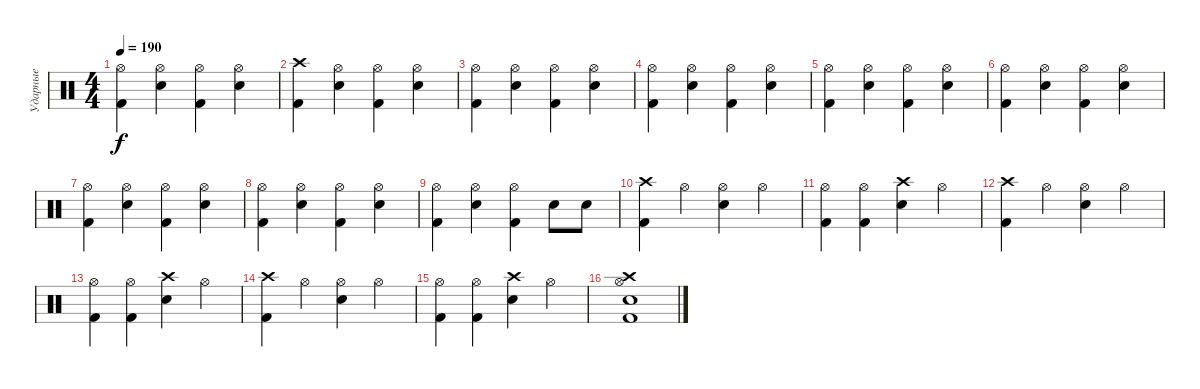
\track ("Ударные" "Ударные") {instrument percussion}
\staff {score}
\articulation defaults
\ts (4 4)
\tempo 190
\clef neutral
\ks c
("Hi-Hat (open)" "Kick (hit) 2").4{dy f} ("Hi-Hat (open)" "Electric Snare (hit)").4 ("Hi-Hat (open)" "Kick (hit) 2").4 ("Hi-Hat (open)" "Electric Snare (hit)").4 |
("Crash high (hit)" "Kick (hit) 2").4 ("Hi-Hat (open)" "Electric Snare (hit)").4 ("Hi-Hat (open)" "Kick (hit) 2").4 ("Hi-Hat (open)" "Electric Snare (hit)").4 |
("Hi-Hat (open)" "Kick (hit) 2").4 ("Hi-Hat (open)" "Electric Snare (hit)").4 ("Hi-Hat (open)" "Kick (hit) 2").4 ("Hi-Hat (open)" "Electric Snare (hit)").4 |
("Hi-Hat (open)" "Kick (hit) 2").4 ("Hi-Hat (open)" "Electric Snare (hit)").4 ("Hi-Hat (open)" "Kick (hit) 2").4 ("Hi-Hat (open)" "Electric Snare (hit)").4 |
("Hi-Hat (open)" "Kick (hit) 2").4 ("Hi-Hat (open)" "Electric Snare (hit)").4 ("Hi-Hat (open)" "Kick (hit) 2").4 ("Hi-Hat (open)" "Electric Snare (hit)").4 |
("Hi-Hat (open)" "Kick (hit) 2").4 ("Hi-Hat (open)" "Electric Snare (hit)").4 ("Hi-Hat (open)" "Kick (hit) 2").4 ("Hi-Hat (open)" "Electric Snare (hit)").4 |
("Hi-Hat (open)" "Kick (hit) 2").4 ("Hi-Hat (open)" "Electric Snare (hit)").4 ("Hi-Hat (open)" "Kick (hit) 2").4 ("Hi-Hat (open)" "Electric Snare (hit)").4 |
("Hi-Hat (open)" "Kick (hit) 2").4 ("Hi-Hat (open)" "Electric Snare (hit)").4 ("Hi-Hat (open)" "Kick (hit) 2").4 ("Hi-Hat (open)" "Electric Snare (hit)").4 |
("Hi-Hat (open)" "Kick (hit) 2").4 ("Hi-Hat (open)" "Electric Snare (hit)").4 ("Hi-Hat (open)" "Kick (hit) 2").4 "Electric Snare (hit)".8 "Electric Snare (hit)".8 |
("Crash high (hit)" "Kick (hit) 2").4 "Hi-Hat (open)".4 ("Hi-Hat (open)" "Electric Snare (hit)").4 "Hi-Hat (open)".4 |
("Hi-Hat (open)" "Kick (hit) 2").4 ("Hi-Hat (open)" "Kick (hit) 2").4 ("Crash high (hit)" "Electric Snare (hit)").4 "Hi-Hat (open)".4 |
("Crash high (hit)" "Kick (hit) 2").4 "Hi-Hat (open)".4 ("Hi-Hat (open)" "Electric Snare (hit)").4 "Hi-Hat (open)".4 |
("Hi-Hat (open)" "Kick (hit) 2").4 ("Hi-Hat (open)" "Kick (hit) 2").4 ("Crash high (hit)" "Electric Snare (hit)").4 "Hi-Hat (open)".4 |
("Crash high (hit)" "Kick (hit) 2").4 "Hi-Hat (open)".4 ("Hi-Hat (open)" "Electric Snare (hit)").4 "Hi-Hat (open)".4 |
("Hi-Hat (open)" "Kick (hit) 2").4 ("Hi-Hat (open)" "Kick (hit) 2").4 ("Crash high (hit)" "Electric Snare (hit)").4 "Hi-Hat (open)".4 |
("Crash high (hit)" "Hi-Hat (open)" "Electric Snare (hit)" "Kick (hit) 2").1
